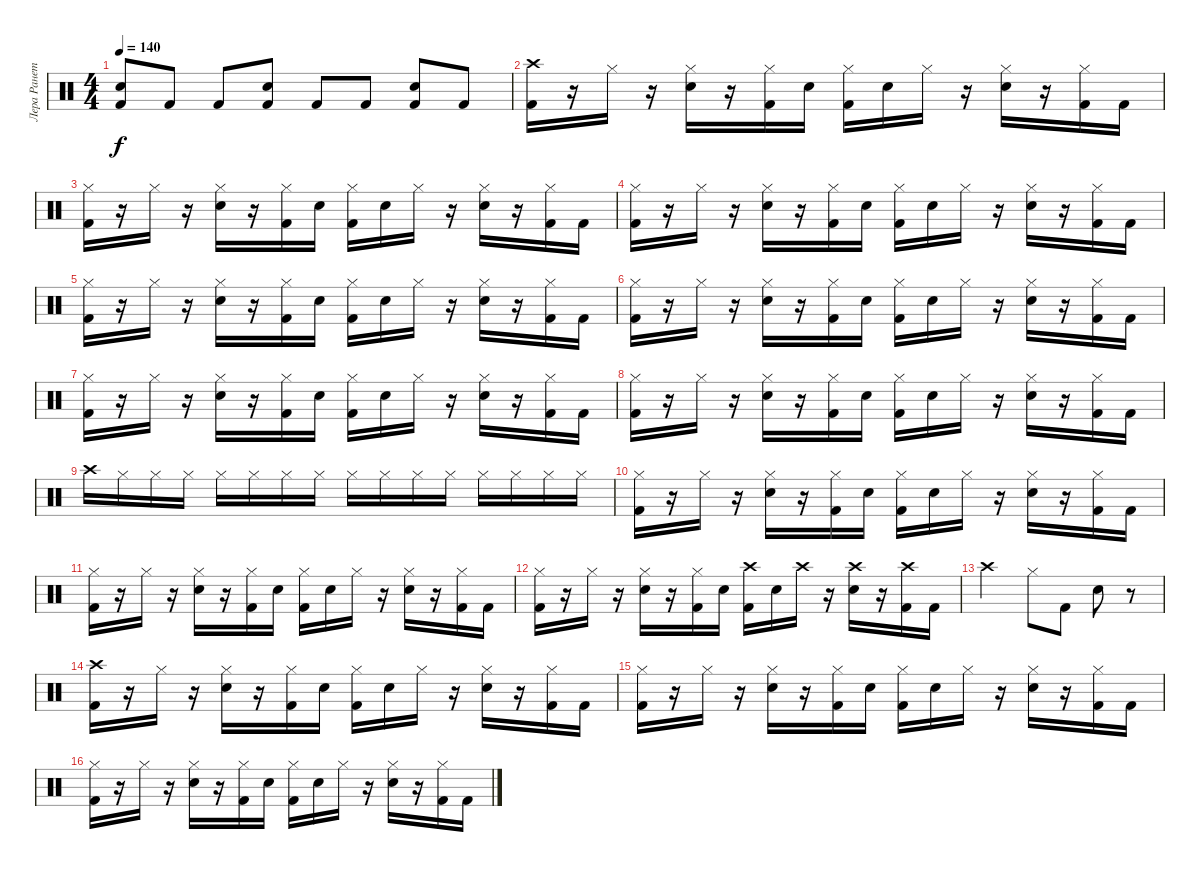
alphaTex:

\track ("Лера Ранетка" "Лера Ранет") {instrument percussion}
\staff {score}
\articulation defaults
\ts (4 4)
\tempo 140
\clef neutral
\ks c
("Snare (hit) 2" "Kick (hit) 2").8{dy f} "Kick (hit) 2".8 "Kick (hit) 2".8 ("Snare (hit) 2" "Kick (hit) 2").8 "Kick (hit) 2".8 "Kick (hit) 2".8 ("Snare (hit) 2" "Kick (hit) 2").8 "Kick (hit) 2".8 |
("Crash high (hit)" "Kick (hit) 2").16 r.16 "Hi-Hat (closed)".16 r.16 ("Hi-Hat (closed)" "Snare (hit) 2").16 r.16 ("Hi-Hat (closed)" "Kick (hit) 2").16 "Snare (hit) 2".16 ("Hi-Hat (closed)" "Kick (hit) 2").16 "Snare (hit) 2".16 "Hi-Hat (closed)".16 r.16 ("Hi-Hat (closed)" "Snare (hit) 2").16 r.16 ("Hi-Hat (closed)" "Kick (hit) 2").16 "Kick (hit) 2".16 |
("Hi-Hat (closed)" "Kick (hit) 2").16 r.16 "Hi-Hat (closed)".16 r.16 ("Hi-Hat (closed)" "Snare (hit) 2").16 r.16 ("Hi-Hat (closed)" "Kick (hit) 2").16 "Snare (hit) 2".16 ("Hi-Hat (closed)" "Kick (hit) 2").16 "Snare (hit) 2".16 "Hi-Hat (closed)".16 r.16 ("Hi-Hat (closed)" "Snare (hit) 2").16 r.16 ("Hi-Hat (closed)" "Kick (hit) 2").16 "Kick (hit) 2".16 |
("Hi-Hat (closed)" "Kick (hit) 2").16 r.16 "Hi-Hat (closed)".16 r.16 ("Hi-Hat (closed)" "Snare (hit) 2").16 r.16 ("Hi-Hat (closed)" "Kick (hit) 2").16 "Snare (hit) 2".16 ("Hi-Hat (closed)" "Kick (hit) 2").16 "Snare (hit) 2".16 "Hi-Hat (closed)".16 r.16 ("Hi-Hat (closed)" "Snare (hit) 2").16 r.16 ("Hi-Hat (closed)" "Kick (hit) 2").16 "Kick (hit) 2".16 |
("Hi-Hat (closed)" "Kick (hit) 2").16 r.16 "Hi-Hat (closed)".16 r.16 ("Hi-Hat (closed)" "Snare (hit) 2").16 r.16 ("Hi-Hat (closed)" "Kick (hit) 2").16 "Snare (hit) 2".16 ("Hi-Hat (closed)" "Kick (hit) 2").16 "Snare (hit) 2".16 "Hi-Hat (closed)".16 r.16 ("Hi-Hat (closed)" "Snare (hit) 2").16 r.16 ("Hi-Hat (closed)" "Kick (hit) 2").16 "Kick (hit) 2".16 |
("Hi-Hat (closed)" "Kick (hit) 2").16 r.16 "Hi-Hat (closed)".16 r.16 ("Hi-Hat (closed)" "Snare (hit) 2").16 r.16 ("Hi-Hat (closed)" "Kick (hit) 2").16 "Snare (hit) 2".16 ("Hi-Hat (closed)" "Kick (hit) 2").16 "Snare (hit) 2".16 "Hi-Hat (closed)".16 r.16 ("Hi-Hat (closed)" "Snare (hit) 2").16 r.16 ("Hi-Hat (closed)" "Kick (hit) 2").16 "Kick (hit) 2".16 |
("Hi-Hat (closed)" "Kick (hit) 2").16 r.16 "Hi-Hat (closed)".16 r.16 ("Hi-Hat (closed)" "Snare (hit) 2").16 r.16 ("Hi-Hat (closed)" "Kick (hit) 2").16 "Snare (hit) 2".16 ("Hi-Hat (closed)" "Kick (hit) 2").16 "Snare (hit) 2".16 "Hi-Hat (closed)".16 r.16 ("Hi-Hat (closed)" "Snare (hit) 2").16 r.16 ("Hi-Hat (closed)" "Kick (hit) 2").16 "Kick (hit) 2".16 |
("Hi-Hat (closed)" "Kick (hit) 2").16 r.16 "Hi-Hat (closed)".16 r.16 ("Hi-Hat (closed)" "Snare (hit) 2").16 r.16 ("Hi-Hat (closed)" "Kick (hit) 2").16 "Snare (hit) 2".16 ("Hi-Hat (closed)" "Kick (hit) 2").16 "Snare (hit) 2".16 "Hi-Hat (closed)".16 r.16 ("Hi-Hat (closed)" "Snare (hit) 2").16 r.16 ("Hi-Hat (closed)" "Kick (hit) 2").16 "Kick (hit) 2".16 |
"Crash high (hit)".16 "Hi-Hat (closed)".16 "Hi-Hat (closed)".16 "Hi-Hat (closed)".16 "Hi-Hat (closed)".16 "Hi-Hat (closed)".16 "Hi-Hat (closed)".16 "Hi-Hat (closed)".16 "Hi-Hat (closed)".16 "Hi-Hat (closed)".16 "Hi-Hat (closed)".16 "Hi-Hat (closed)".16 "Hi-Hat (closed)".16 "Hi-Hat (closed)".16 "Hi-Hat (closed)".16 "Hi-Hat (closed)".16 |
("Hi-Hat (closed)" "Kick (hit) 2").16 r.16 "Hi-Hat (closed)".16 r.16 ("Hi-Hat (closed)" "Snare (hit) 2").16 r.16 ("Hi-Hat (closed)" "Kick (hit) 2").16 "Snare (hit) 2".16 ("Hi-Hat (closed)" "Kick (hit) 2").16 "Snare (hit) 2".16 "Hi-Hat (closed)".16 r.16 ("Hi-Hat (closed)" "Snare (hit) 2").16 r.16 ("Hi-Hat (closed)" "Kick (hit) 2").16 "Kick (hit) 2".16 |
("Hi-Hat (closed)" "Kick (hit) 2").16 r.16 "Hi-Hat (closed)".16 r.16 ("Hi-Hat (closed)" "Snare (hit) 2").16 r.16 ("Hi-Hat (closed)" "Kick (hit) 2").16 "Snare (hit) 2".16 ("Hi-Hat (closed)" "Kick (hit) 2").16 "Snare (hit) 2".16 "Hi-Hat (closed)".16 r.16 ("Hi-Hat (closed)" "Snare (hit) 2").16 r.16 ("Hi-Hat (closed)" "Kick (hit) 2").16 "Kick (hit) 2".16 |
("Hi-Hat (closed)" "Kick (hit) 2").16 r.16 "Hi-Hat (closed)".16 r.16 ("Hi-Hat (closed)" "Snare (hit) 2").16 r.16 ("Hi-Hat (closed)" "Kick (hit) 2").16 "Snare (hit) 2".16 ("Crash high (hit)" "Kick (hit) 2").16 "Snare (hit) 2".16 "Crash high (hit)".16 r.16 ("Crash high (hit)" "Snare (hit) 2").16 r.16 ("Crash high (hit)" "Kick (hit) 2").16 "Kick (hit) 2".16 |
"Crash high (hit)".2 "Hi-Hat (closed)".8 "Kick (hit) 2".8 "Snare (hit) 2".8 r.8 |
("Crash high (hit)" "Kick (hit) 2").16 r.16 "Hi-Hat (closed)".16 r.16 ("Hi-Hat (closed)" "Snare (hit) 2").16 r.16 ("Hi-Hat (closed)" "Kick (hit) 2").16 "Snare (hit) 2".16 ("Hi-Hat (closed)" "Kick (hit) 2").16 "Snare (hit) 2".16 "Hi-Hat (closed)".16 r.16 ("Hi-Hat (closed)" "Snare (hit) 2").16 r.16 ("Hi-Hat (closed)" "Kick (hit) 2").16 "Kick (hit) 2".16 |
("Hi-Hat (closed)" "Kick (hit) 2").16 r.16 "Hi-Hat (closed)".16 r.16 ("Hi-Hat (closed)" "Snare (hit) 2").16 r.16 ("Hi-Hat (closed)" "Kick (hit) 2").16 "Snare (hit) 2".16 ("Hi-Hat (closed)" "Kick (hit) 2").16 "Snare (hit) 2".16 "Hi-Hat (closed)".16 r.16 ("Hi-Hat (closed)" "Snare (hit) 2").16 r.16 ("Hi-Hat (closed)" "Kick (hit) 2").16 "Kick (hit) 2".16 |
("Hi-Hat (closed)" "Kick (hit) 2").16 r.16 "Hi-Hat (closed)".16 r.16 ("Hi-Hat (closed)" "Snare (hit) 2").16 r.16 ("Hi-Hat (closed)" "Kick (hit) 2").16 "Snare (hit) 2".16 ("Hi-Hat (closed)" "Kick (hit) 2").16 "Snare (hit) 2".16 "Hi-Hat (closed)".16 r.16 ("Hi-Hat (closed)" "Snare (hit) 2").16 r.16 ("Hi-Hat (closed)" "Kick (hit) 2").16 "Kick (hit) 2".16
